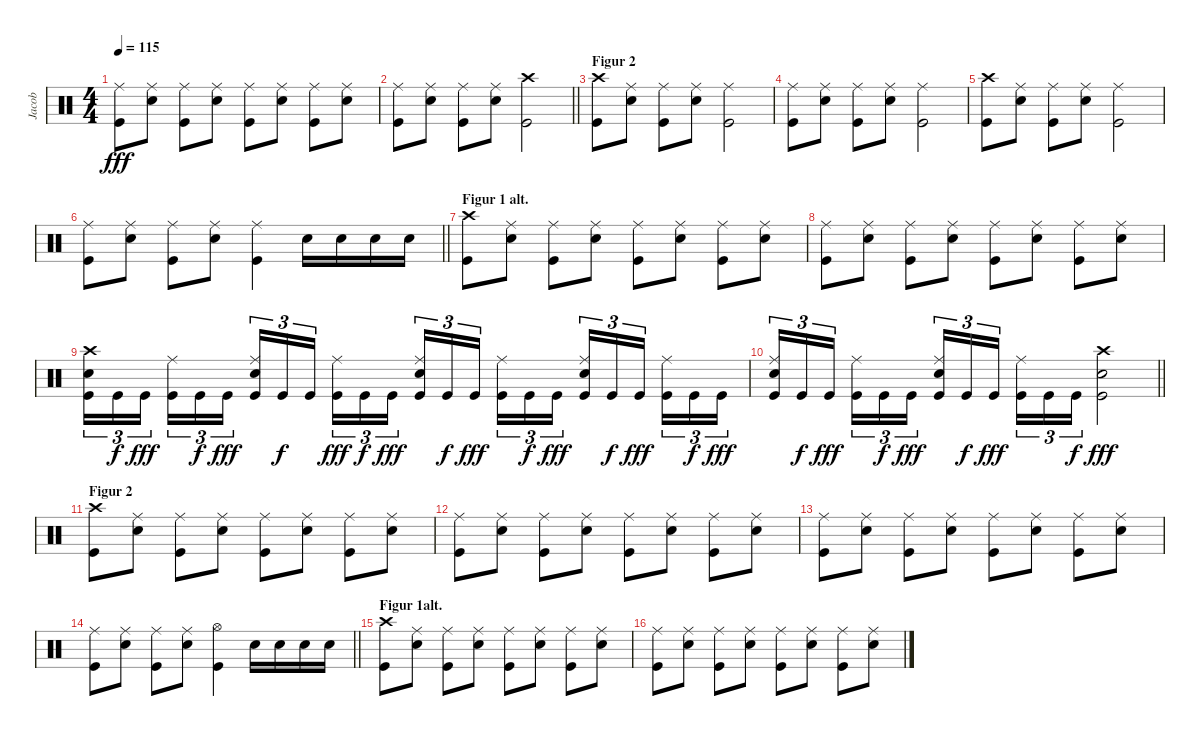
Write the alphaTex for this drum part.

\track ("Jacob" "Jacob") {instrument percussion}
\staff {score}
\articulation defaults
\ts (4 4)
\tempo 115
\clef neutral
\ks c
("Kick (hit)" "Ride (middle)").8{dy fff} ("Electric Snare (hit)" "Ride (middle)").8 ("Kick (hit)" "Ride (middle)").8 ("Electric Snare (hit)" "Ride (middle)").8 ("Kick (hit)" "Ride (middle)").8 ("Electric Snare (hit)" "Ride (middle)").8 ("Kick (hit)" "Ride (middle)").8 ("Electric Snare (hit)" "Ride (middle)").8 |
\barLineRight lightlight
("Kick (hit)" "Ride (middle)").8 ("Electric Snare (hit)" "Ride (middle)").8 ("Kick (hit)" "Ride (middle)").8 ("Electric Snare (hit)" "Ride (middle)").8 ("Kick (hit)" "Crash high (hit)").2 |
\section ("" "Figur 2")
("Kick (hit)" "Crash high (hit)").8 ("Electric Snare (hit)" "Ride (middle)").8 ("Kick (hit)" "Ride (middle)").8 ("Electric Snare (hit)" "Ride (middle)").8 ("Kick (hit)" "Ride (middle)").2 |
("Kick (hit)" "Ride (middle)").8 ("Electric Snare (hit)" "Ride (middle)").8 ("Kick (hit)" "Ride (middle)").8 ("Electric Snare (hit)" "Ride (middle)").8 ("Kick (hit)" "Ride (middle)").2 |
("Kick (hit)" "Crash high (hit)").8 ("Electric Snare (hit)" "Ride (middle)").8 ("Kick (hit)" "Ride (middle)").8 ("Electric Snare (hit)" "Ride (middle)").8 ("Kick (hit)" "Ride (middle)").2 |
\barLineRight lightlight
("Kick (hit)" "Ride (middle)").8 ("Electric Snare (hit)" "Ride (middle)").8 ("Kick (hit)" "Ride (middle)").8 ("Electric Snare (hit)" "Ride (middle)").8 ("Kick (hit)" "Ride (middle)").4 "Electric Snare (hit)".16 "Electric Snare (hit)".16 "Electric Snare (hit)".16 "Electric Snare (hit)".16 |
\section ("" "Figur 1 alt.")
("Kick (hit)" "Crash high (hit)").8 ("Electric Snare (hit)" "Ride (middle)").8 ("Kick (hit)" "Ride (middle)").8 ("Electric Snare (hit)" "Ride (middle)").8 ("Kick (hit)" "Ride (middle)").8 ("Electric Snare (hit)" "Ride (middle)").8 ("Kick (hit)" "Ride (middle)").8 ("Electric Snare (hit)" "Ride (middle)").8 |
("Kick (hit)" "Ride (middle)").8 ("Electric Snare (hit)" "Ride (middle)").8 ("Kick (hit)" "Ride (middle)").8 ("Electric Snare (hit)" "Ride (middle)").8 ("Kick (hit)" "Ride (middle)").8 ("Electric Snare (hit)" "Ride (middle)").8 ("Kick (hit)" "Ride (middle)").8 ("Electric Snare (hit)" "Ride (middle)").8 |
("Kick (hit)" "Electric Snare (hit)" "Crash high (hit)").16{tu (3 2)} "Kick (hit)".16{tu (3 2) dy f} "Kick (hit)".16{tu (3 2) dy fff} ("Kick (hit)" "Ride (middle)").16{tu (3 2)} "Kick (hit)".16{tu (3 2) dy f} "Kick (hit)".16{tu (3 2) dy fff} ("Kick (hit)" "Electric Snare (hit)" "Ride (middle)").16{tu (3 2)} "Kick (hit)".16{tu (3 2) dy f} "Kick (hit)".16{tu (3 2)} ("Kick (hit)" "Ride (middle)").16{tu (3 2) dy fff} "Kick (hit)".16{tu (3 2) dy f} "Kick (hit)".16{tu (3 2) dy fff} ("Kick (hit)" "Electric Snare (hit)" "Ride (middle)").16{tu (3 2)} "Kick (hit)".16{tu (3 2) dy f} "Kick (hit)".16{tu (3 2) dy fff} ("Kick (hit)" "Ride (middle)").16{tu (3 2)} "Kick (hit)".16{tu (3 2) dy f} "Kick (hit)".16{tu (3 2) dy fff} ("Kick (hit)" "Electric Snare (hit)" "Ride (middle)").16{tu (3 2)} "Kick (hit)".16{tu (3 2) dy f} "Kick (hit)".16{tu (3 2) dy fff} ("Kick (hit)" "Ride (middle)").16{tu (3 2)} "Kick (hit)".16{tu (3 2) dy f} "Kick (hit)".16{tu (3 2) dy fff} |
\barLineRight lightlight
("Kick (hit)" "Electric Snare (hit)" "Ride (middle)").16{tu (3 2)} "Kick (hit)".16{tu (3 2) dy f} "Kick (hit)".16{tu (3 2) dy fff} ("Kick (hit)" "Ride (middle)").16{tu (3 2)} "Kick (hit)".16{tu (3 2) dy f} "Kick (hit)".16{tu (3 2) dy fff} ("Kick (hit)" "Electric Snare (hit)" "Ride (middle)").16{tu (3 2)} "Kick (hit)".16{tu (3 2) dy f} "Kick (hit)".16{tu (3 2) dy fff} ("Kick (hit)" "Ride (middle)").16{tu (3 2)} "Kick (hit)".16{tu (3 2)} "Kick (hit)".16{tu (3 2) dy f} ("Kick (hit)" "Electric Snare (hit)" "Crash high (hit)").2{dy fff} |
\section ("" "Figur 2")
("Kick (hit)" "Crash high (hit)").8 ("Electric Snare (hit)" "Ride (middle)").8 ("Kick (hit)" "Ride (middle)").8 ("Electric Snare (hit)" "Ride (middle)").8 ("Kick (hit)" "Ride (middle)").8 ("Electric Snare (hit)" "Ride (middle)").8 ("Kick (hit)" "Ride (middle)").8 ("Electric Snare (hit)" "Ride (middle)").8 |
("Kick (hit)" "Ride (middle)").8 ("Electric Snare (hit)" "Ride (middle)").8 ("Kick (hit)" "Ride (middle)").8 ("Electric Snare (hit)" "Ride (middle)").8 ("Kick (hit)" "Ride (middle)").8 ("Electric Snare (hit)" "Ride (middle)").8 ("Kick (hit)" "Ride (middle)").8 ("Electric Snare (hit)" "Ride (middle)").8 |
("Kick (hit)" "Ride (middle)").8 ("Electric Snare (hit)" "Ride (middle)").8 ("Kick (hit)" "Ride (middle)").8 ("Electric Snare (hit)" "Ride (middle)").8 ("Kick (hit)" "Ride (middle)").8 ("Electric Snare (hit)" "Ride (middle)").8 ("Kick (hit)" "Ride (middle)").8 ("Electric Snare (hit)" "Ride (middle)").8 |
\barLineRight lightlight
("Kick (hit)" "Ride (middle)").8 ("Electric Snare (hit)" "Ride (middle)").8 ("Kick (hit)" "Ride (middle)").8 ("Electric Snare (hit)" "Ride (middle)").8 ("Kick (hit)" "Hi-Hat (open)").4 "Electric Snare (hit)".16 "Electric Snare (hit)".16 "Electric Snare (hit)".16 "Electric Snare (hit)".16 |
\section ("" "Figur 1alt.")
("Kick (hit)" "Crash high (hit)").8 ("Electric Snare (hit)" "Ride (middle)").8 ("Kick (hit)" "Ride (middle)").8 ("Electric Snare (hit)" "Ride (middle)").8 ("Kick (hit)" "Ride (middle)").8 ("Electric Snare (hit)" "Ride (middle)").8 ("Kick (hit)" "Ride (middle)").8 ("Electric Snare (hit)" "Ride (middle)").8 |
("Kick (hit)" "Ride (middle)").8 ("Electric Snare (hit)" "Ride (middle)").8 ("Kick (hit)" "Ride (middle)").8 ("Electric Snare (hit)" "Ride (middle)").8 ("Kick (hit)" "Ride (middle)").8 ("Electric Snare (hit)" "Ride (middle)").8 ("Kick (hit)" "Ride (middle)").8 ("Electric Snare (hit)" "Ride (middle)").8
